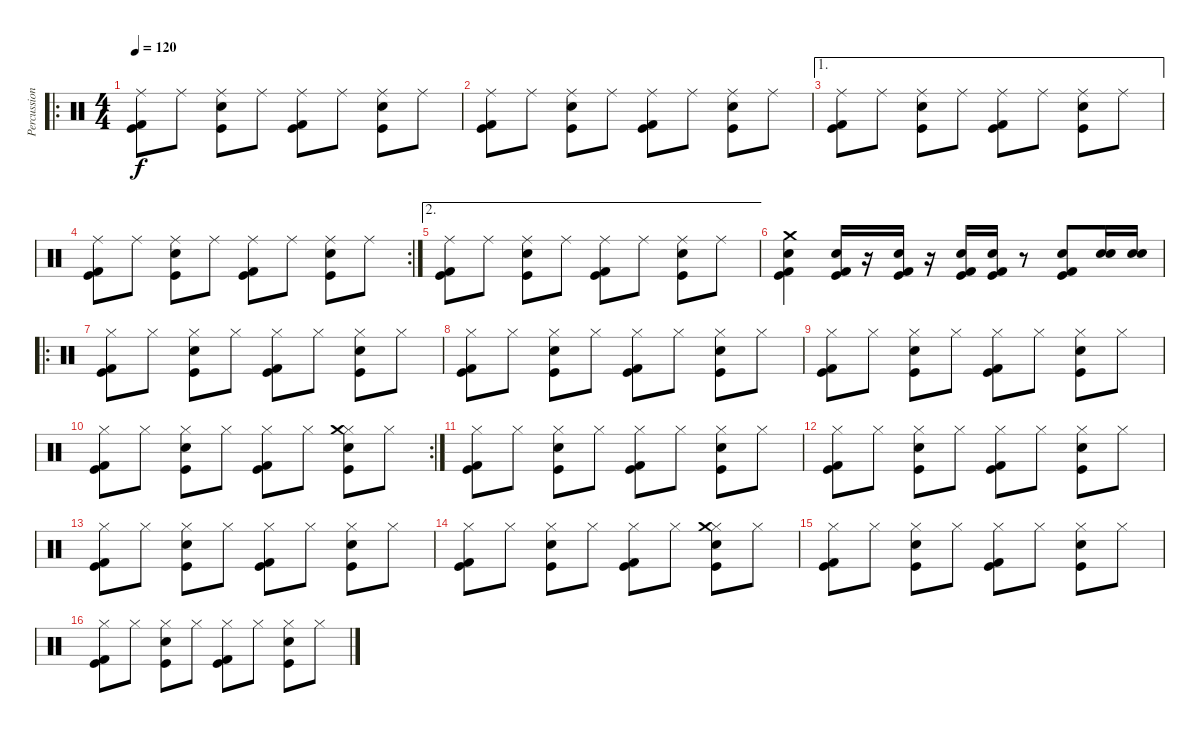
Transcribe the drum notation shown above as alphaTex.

\track ("Percussion" "Percussion") {instrument percussion}
\staff {score}
\articulation defaults
\ro
\ts (4 4)
\tempo 120
\clef neutral
\ks c
("Ride (middle)" "Kick (hit)" "Kick (hit) 2").8{dy f} "Ride (middle)".8 ("Ride (middle)" "Kick (hit)" "Snare (hit) 2").8 "Ride (middle)".8 ("Ride (middle)" "Kick (hit)" "Kick (hit) 2").8 "Ride (middle)".8 ("Ride (middle)" "Kick (hit)" "Snare (hit) 2").8 "Ride (middle)".8 |
("Ride (middle)" "Kick (hit)" "Kick (hit) 2").8 "Ride (middle)".8 ("Ride (middle)" "Kick (hit)" "Snare (hit) 2").8 "Ride (middle)".8 ("Ride (middle)" "Kick (hit)" "Kick (hit) 2").8 "Ride (middle)".8 ("Ride (middle)" "Kick (hit)" "Snare (hit) 2").8 "Ride (middle)".8 |
\ae 1
("Ride (middle)" "Kick (hit)" "Kick (hit) 2").8 "Ride (middle)".8 ("Ride (middle)" "Kick (hit)" "Snare (hit) 2").8 "Ride (middle)".8 ("Ride (middle)" "Kick (hit)" "Kick (hit) 2").8 "Ride (middle)".8 ("Ride (middle)" "Kick (hit)" "Snare (hit) 2").8 "Ride (middle)".8 |
\rc 2
("Ride (middle)" "Kick (hit)" "Kick (hit) 2").8 "Ride (middle)".8 ("Ride (middle)" "Kick (hit)" "Snare (hit) 2").8 "Ride (middle)".8 ("Ride (middle)" "Kick (hit)" "Kick (hit) 2").8 "Ride (middle)".8 ("Ride (middle)" "Kick (hit)" "Snare (hit) 2").8 "Ride (middle)".8 |
\ae 2
("Ride (middle)" "Kick (hit)" "Kick (hit) 2").8 "Ride (middle)".8 ("Ride (middle)" "Kick (hit)" "Snare (hit) 2").8 "Ride (middle)".8 ("Ride (middle)" "Kick (hit)" "Kick (hit) 2").8 "Ride (middle)".8 ("Ride (middle)" "Kick (hit)" "Snare (hit) 2").8 "Ride (middle)".8 |
("Kick (hit)" "Kick (hit) 2" "Snare (hit) 2" "Crash medium (hit)").4 ("Kick (hit)" "Kick (hit) 2" "Electric Snare (hit)").16 r.16 ("Kick (hit)" "Kick (hit) 2" "Electric Snare (hit)").16 r.16 ("Kick (hit)" "Kick (hit) 2" "Electric Snare (hit)").16 ("Kick (hit)" "Kick (hit) 2" "Electric Snare (hit)").16 r.8 ("Kick (hit)" "Kick (hit) 2" "Snare (hit) 2").8 ("Snare (hit) 2" "Electric Snare (hit)").16 ("Snare (hit) 2" "Electric Snare (hit)").16 |
\ro
("Hi-Hat (closed)" "Kick (hit)" "Kick (hit) 2").8 "Hi-Hat (closed)".8 ("Hi-Hat (closed)" "Kick (hit)" "Snare (hit) 2").8 "Hi-Hat (closed)".8 ("Hi-Hat (closed)" "Kick (hit)" "Kick (hit) 2").8 "Hi-Hat (closed)".8 ("Hi-Hat (closed)" "Kick (hit)" "Snare (hit) 2").8 "Hi-Hat (closed)".8 |
("Hi-Hat (closed)" "Kick (hit)" "Kick (hit) 2").8 "Hi-Hat (closed)".8 ("Hi-Hat (closed)" "Kick (hit)" "Snare (hit) 2").8 "Hi-Hat (closed)".8 ("Hi-Hat (closed)" "Kick (hit)" "Kick (hit) 2").8 "Hi-Hat (closed)".8 ("Hi-Hat (closed)" "Kick (hit)" "Snare (hit) 2").8 "Hi-Hat (closed)".8 |
("Hi-Hat (closed)" "Kick (hit)" "Kick (hit) 2").8 "Hi-Hat (closed)".8 ("Hi-Hat (closed)" "Kick (hit)" "Snare (hit) 2").8 "Hi-Hat (closed)".8 ("Hi-Hat (closed)" "Kick (hit)" "Kick (hit) 2").8 "Hi-Hat (closed)".8 ("Hi-Hat (closed)" "Kick (hit)" "Snare (hit) 2").8 "Hi-Hat (closed)".8 |
\rc 2
("Hi-Hat (closed)" "Kick (hit)" "Kick (hit) 2").8 "Hi-Hat (closed)".8 ("Hi-Hat (closed)" "Kick (hit)" "Snare (hit) 2").8 "Hi-Hat (closed)".8 ("Hi-Hat (closed)" "Kick (hit)" "Kick (hit) 2").8 "Hi-Hat (closed)".8 ("Hi-Hat (closed)" "Kick (hit)" "Snare (hit) 2" "Crash medium (hit)").8 "Hi-Hat (closed)".8 |
("Hi-Hat (closed)" "Kick (hit)" "Kick (hit) 2").8 "Hi-Hat (closed)".8 ("Hi-Hat (closed)" "Kick (hit)" "Snare (hit) 2").8 "Hi-Hat (closed)".8 ("Hi-Hat (closed)" "Kick (hit)" "Kick (hit) 2").8 "Hi-Hat (closed)".8 ("Hi-Hat (closed)" "Kick (hit)" "Snare (hit) 2").8 "Hi-Hat (closed)".8 |
("Hi-Hat (closed)" "Kick (hit)" "Kick (hit) 2").8 "Hi-Hat (closed)".8 ("Hi-Hat (closed)" "Kick (hit)" "Snare (hit) 2").8 "Hi-Hat (closed)".8 ("Hi-Hat (closed)" "Kick (hit)" "Kick (hit) 2").8 "Hi-Hat (closed)".8 ("Hi-Hat (closed)" "Kick (hit)" "Snare (hit) 2").8 "Hi-Hat (closed)".8 |
("Hi-Hat (closed)" "Kick (hit)" "Kick (hit) 2").8 "Hi-Hat (closed)".8 ("Hi-Hat (closed)" "Kick (hit)" "Snare (hit) 2").8 "Hi-Hat (closed)".8 ("Hi-Hat (closed)" "Kick (hit)" "Kick (hit) 2").8 "Hi-Hat (closed)".8 ("Hi-Hat (closed)" "Kick (hit)" "Snare (hit) 2").8 "Hi-Hat (closed)".8 |
("Hi-Hat (closed)" "Kick (hit)" "Kick (hit) 2").8 "Hi-Hat (closed)".8 ("Hi-Hat (closed)" "Kick (hit)" "Snare (hit) 2").8 "Hi-Hat (closed)".8 ("Hi-Hat (closed)" "Kick (hit)" "Kick (hit) 2").8 "Hi-Hat (closed)".8 ("Hi-Hat (closed)" "Kick (hit)" "Snare (hit) 2" "Crash medium (hit)").8 "Hi-Hat (closed)".8 |
("Hi-Hat (closed)" "Kick (hit)" "Kick (hit) 2").8 "Hi-Hat (closed)".8 ("Hi-Hat (closed)" "Kick (hit)" "Snare (hit) 2").8 "Hi-Hat (closed)".8 ("Hi-Hat (closed)" "Kick (hit)" "Kick (hit) 2").8 "Hi-Hat (closed)".8 ("Hi-Hat (closed)" "Kick (hit)" "Snare (hit) 2").8 "Hi-Hat (closed)".8 |
("Hi-Hat (closed)" "Kick (hit)" "Kick (hit) 2").8 "Hi-Hat (closed)".8 ("Hi-Hat (closed)" "Kick (hit)" "Snare (hit) 2").8 "Hi-Hat (closed)".8 ("Hi-Hat (closed)" "Kick (hit)" "Kick (hit) 2").8 "Hi-Hat (closed)".8 ("Hi-Hat (closed)" "Kick (hit)" "Snare (hit) 2").8 "Hi-Hat (closed)".8
